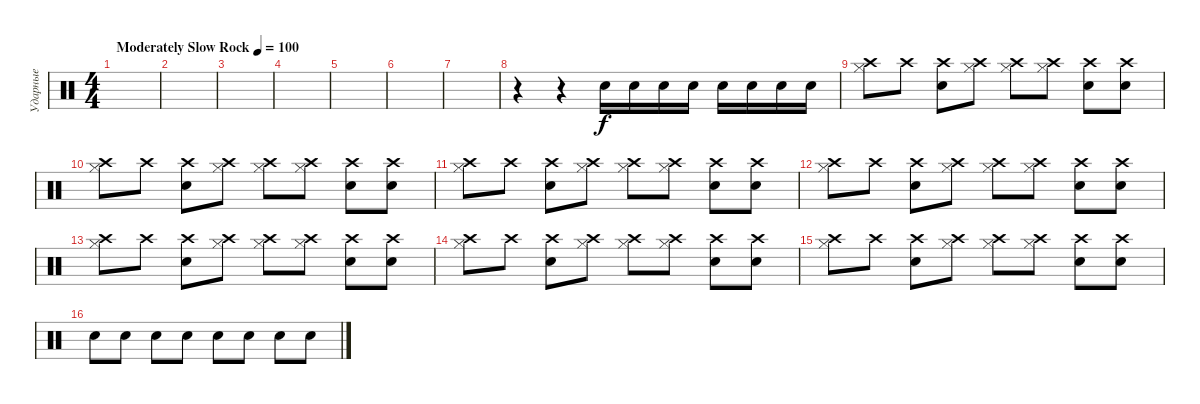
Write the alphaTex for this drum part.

\track ("Ударные" "Ударные") {instrument percussion}
\staff {score}
\articulation defaults
\ts (4 4)
\tempo (100 "Moderately Slow Rock")
\clef neutral
\ks c
|
|
|
|
|
|
|
r.4 r.4 "Snare (hit) 2".16 "Snare (hit) 2".16 "Snare (hit) 2".16 "Snare (hit) 2".16 "Snare (hit) 2".16 "Snare (hit) 2".16 "Snare (hit) 2".16 "Snare (hit) 2".16 |
("Crash high (hit)" "Hi-Hat (closed)").8 "Crash high (hit)".8 ("Crash high (hit)" "Snare (hit) 2").8 ("Crash high (hit)" "Hi-Hat (closed)").8 ("Crash high (hit)" "Hi-Hat (closed)").8 ("Crash high (hit)" "Hi-Hat (closed)").8 ("Crash high (hit)" "Snare (hit) 2").8 ("Crash high (hit)" "Snare (hit) 2").8 |
("Crash high (hit)" "Hi-Hat (closed)").8 "Crash high (hit)".8 ("Crash high (hit)" "Snare (hit) 2").8 ("Crash high (hit)" "Hi-Hat (closed)").8 ("Crash high (hit)" "Hi-Hat (closed)").8 ("Crash high (hit)" "Hi-Hat (closed)").8 ("Crash high (hit)" "Snare (hit) 2").8 ("Crash high (hit)" "Snare (hit) 2").8 |
("Crash high (hit)" "Hi-Hat (closed)").8 "Crash high (hit)".8 ("Crash high (hit)" "Snare (hit) 2").8 ("Crash high (hit)" "Hi-Hat (closed)").8 ("Crash high (hit)" "Hi-Hat (closed)").8 ("Crash high (hit)" "Hi-Hat (closed)").8 ("Crash high (hit)" "Snare (hit) 2").8 ("Crash high (hit)" "Snare (hit) 2").8 |
("Crash high (hit)" "Hi-Hat (closed)").8 "Crash high (hit)".8 ("Crash high (hit)" "Snare (hit) 2").8 ("Crash high (hit)" "Hi-Hat (closed)").8 ("Crash high (hit)" "Hi-Hat (closed)").8 ("Crash high (hit)" "Hi-Hat (closed)").8 ("Crash high (hit)" "Snare (hit) 2").8 ("Crash high (hit)" "Snare (hit) 2").8 |
("Crash high (hit)" "Hi-Hat (closed)").8 "Crash high (hit)".8 ("Crash high (hit)" "Snare (hit) 2").8 ("Crash high (hit)" "Hi-Hat (closed)").8 ("Crash high (hit)" "Hi-Hat (closed)").8 ("Crash high (hit)" "Hi-Hat (closed)").8 ("Crash high (hit)" "Snare (hit) 2").8 ("Crash high (hit)" "Snare (hit) 2").8 |
("Crash high (hit)" "Hi-Hat (closed)").8 "Crash high (hit)".8 ("Crash high (hit)" "Snare (hit) 2").8 ("Crash high (hit)" "Hi-Hat (closed)").8 ("Crash high (hit)" "Hi-Hat (closed)").8 ("Crash high (hit)" "Hi-Hat (closed)").8 ("Crash high (hit)" "Snare (hit) 2").8 ("Crash high (hit)" "Snare (hit) 2").8 |
("Crash high (hit)" "Hi-Hat (closed)").8 "Crash high (hit)".8 ("Crash high (hit)" "Snare (hit) 2").8 ("Crash high (hit)" "Hi-Hat (closed)").8 ("Crash high (hit)" "Hi-Hat (closed)").8 ("Crash high (hit)" "Hi-Hat (closed)").8 ("Crash high (hit)" "Snare (hit) 2").8 ("Crash high (hit)" "Snare (hit) 2").8 |
"Snare (hit) 2".8 "Snare (hit) 2".8 "Snare (hit) 2".8 "Snare (hit) 2".8 "Snare (hit) 2".8 "Snare (hit) 2".8 "Snare (hit) 2".8 "Snare (hit) 2".8
